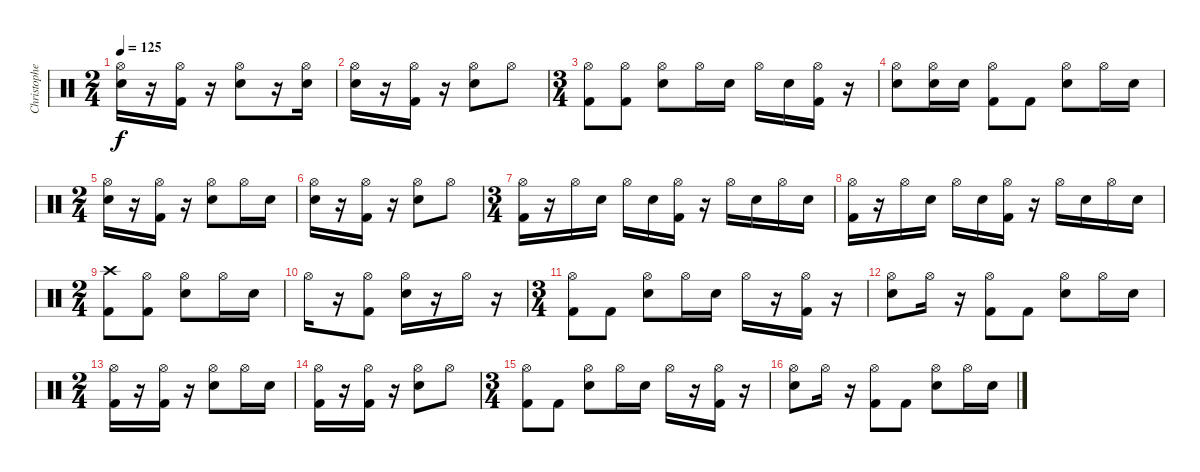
\track ("Christopher - Drums" "Christophe") {instrument percussion}
\staff {score}
\articulation defaults
\ts (2 4)
\tempo 125
\clef neutral
\ks c
("Hi-Hat (open)" "Electric Snare (hit)").16{dy f} r.16 ("Hi-Hat (open)" "Kick (hit) 2").16 r.16 ("Hi-Hat (open)" "Electric Snare (hit)").8 r.16 ("Hi-Hat (open)" "Electric Snare (hit)").16 |
("Hi-Hat (open)" "Electric Snare (hit)").16 r.16 ("Hi-Hat (open)" "Kick (hit) 2").16 r.16 ("Hi-Hat (open)" "Electric Snare (hit)").8 "Hi-Hat (open)".8 |
\ts (3 4)
("Hi-Hat (open)" "Kick (hit) 2").8 ("Hi-Hat (open)" "Kick (hit) 2").8 ("Hi-Hat (open)" "Electric Snare (hit)").8 "Hi-Hat (open)".16 "Electric Snare (hit)".16 "Hi-Hat (open)".16 "Electric Snare (hit)".16 ("Hi-Hat (open)" "Kick (hit) 2").16 r.16 |
("Hi-Hat (open)" "Electric Snare (hit)").8 ("Hi-Hat (open)" "Electric Snare (hit)").16 "Electric Snare (hit)".16 ("Hi-Hat (open)" "Kick (hit) 2").8 "Kick (hit) 2".8 ("Hi-Hat (open)" "Electric Snare (hit)").8 "Hi-Hat (open)".16 "Electric Snare (hit)".16 |
\ts (2 4)
("Hi-Hat (open)" "Electric Snare (hit)").16 r.16 ("Hi-Hat (open)" "Kick (hit) 2").16 r.16 ("Hi-Hat (open)" "Electric Snare (hit)").8 "Hi-Hat (open)".16 "Electric Snare (hit)".16 |
("Hi-Hat (open)" "Electric Snare (hit)").16 r.16 ("Hi-Hat (open)" "Kick (hit) 2").16 r.16 ("Hi-Hat (open)" "Electric Snare (hit)").8 "Hi-Hat (open)".8 |
\ts (3 4)
("Hi-Hat (open)" "Kick (hit) 2").16 r.16 "Hi-Hat (open)".16 "Electric Snare (hit)".16 "Hi-Hat (open)".16 "Electric Snare (hit)".16 ("Hi-Hat (open)" "Kick (hit) 2").16 r.16 "Hi-Hat (open)".16 "Electric Snare (hit)".16 "Hi-Hat (open)".16 "Electric Snare (hit)".16 |
("Hi-Hat (open)" "Kick (hit) 2").16 r.16 "Hi-Hat (open)".16 "Electric Snare (hit)".16 "Hi-Hat (open)".16 "Electric Snare (hit)".16 ("Hi-Hat (open)" "Kick (hit) 2").16 r.16 "Hi-Hat (open)".16 "Electric Snare (hit)".16 "Hi-Hat (open)".16 "Electric Snare (hit)".16 |
\ts (2 4)
("Crash high (hit)" "Kick (hit) 2").8 ("Hi-Hat (open)" "Kick (hit) 2").8 ("Hi-Hat (open)" "Electric Snare (hit)").8 "Hi-Hat (open)".16 "Electric Snare (hit)".16 |
"Hi-Hat (open)".16 r.16 ("Hi-Hat (open)" "Kick (hit) 2").8 ("Hi-Hat (open)" "Electric Snare (hit)").16 r.16 "Hi-Hat (open)".16 r.16 |
\ts (3 4)
("Hi-Hat (open)" "Kick (hit) 2").8 "Kick (hit) 2".8 ("Hi-Hat (open)" "Electric Snare (hit)").8 "Hi-Hat (open)".16 "Electric Snare (hit)".16 "Hi-Hat (open)".16 r.16 ("Hi-Hat (open)" "Kick (hit) 2").16 r.16 |
("Hi-Hat (open)" "Electric Snare (hit)").8 "Hi-Hat (open)".16 r.16 ("Hi-Hat (open)" "Kick (hit) 2").8 "Kick (hit) 2".8 ("Hi-Hat (open)" "Electric Snare (hit)").8 "Hi-Hat (open)".16 "Electric Snare (hit)".16 |
\ts (2 4)
("Hi-Hat (open)" "Kick (hit) 2").16 r.16 ("Hi-Hat (open)" "Kick (hit) 2").16 r.16 ("Hi-Hat (open)" "Electric Snare (hit)").8 "Hi-Hat (open)".16 "Electric Snare (hit)".16 |
("Hi-Hat (open)" "Kick (hit) 2").16 r.16 ("Hi-Hat (open)" "Kick (hit) 2").16 r.16 ("Hi-Hat (open)" "Electric Snare (hit)").8 "Hi-Hat (open)".8 |
\ts (3 4)
("Hi-Hat (open)" "Kick (hit) 2").8 "Kick (hit) 2".8 ("Hi-Hat (open)" "Electric Snare (hit)").8 "Hi-Hat (open)".16 "Electric Snare (hit)".16 "Hi-Hat (open)".16 r.16 ("Hi-Hat (open)" "Kick (hit) 2").16 r.16 |
("Hi-Hat (open)" "Electric Snare (hit)").8 "Hi-Hat (open)".16 r.16 ("Hi-Hat (open)" "Kick (hit) 2").8 "Kick (hit) 2".8 ("Hi-Hat (open)" "Electric Snare (hit)").8 "Hi-Hat (open)".16 "Electric Snare (hit)".16
